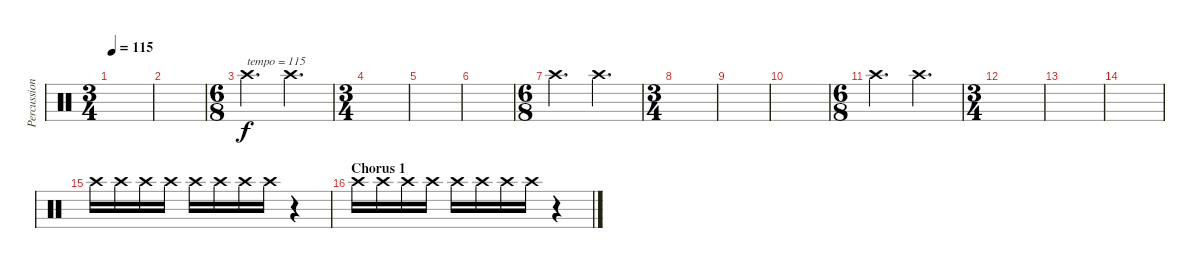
\track ("Percussion" "Percussion") {instrument percussion}
\staff {score}
\articulation defaults
\ts (3 4)
\tempo 115
\clef neutral
\ks c
|
|
\ts (6 8)
"Crash high (hit)".4{d txt "tempo = 115"} "Crash high (hit)".4{d balance 11} |
\ts (3 4)
|
|
|
\ts (6 8)
"Crash high (hit)".4{d balance 5} "Crash high (hit)".4{d balance 11} |
\ts (3 4)
|
|
|
\ts (6 8)
"Crash high (hit)".4{d balance 5} "Crash high (hit)".4{d balance 11} |
\ts (3 4)
|
|
|
"Crash high (hit)".16{balance 5} "Crash high (hit)".16{volume 0} "Crash high (hit)".16 "Crash high (hit)".16 "Crash high (hit)".16 "Crash high (hit)".16 "Crash high (hit)".16 "Crash high (hit)".16 r.4 |
\section ("" "Chorus 1")
"Crash high (hit)".16{volume 10} "Crash high (hit)".16{volume 0} "Crash high (hit)".16 "Crash high (hit)".16 "Crash high (hit)".16 "Crash high (hit)".16 "Crash high (hit)".16 "Crash high (hit)".16 r.4
